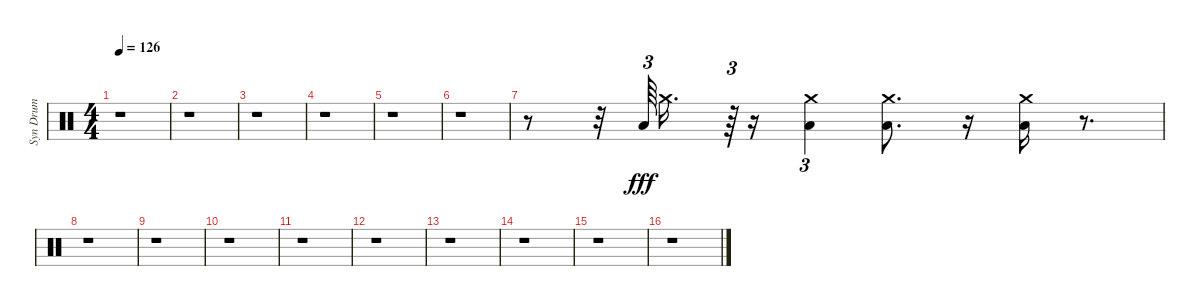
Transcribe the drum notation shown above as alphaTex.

\track ("Syn Drum" "Syn Drum") {instrument percussion}
\staff {score}
\articulation defaults
\ts (4 4)
\tempo 126
\clef neutral
\ks c
r.1{dy fff} |
r.1 |
r.1 |
r.1 |
r.1 |
r.1 |
r.8 r.32 "Low Tom (hit)".64{tu (3 2)} "Crash medium (hit)".16{d} r.64{tu (3 2)} r.16 ("Crash medium (hit)" "Low Tom (hit)").4{tu (3 2)} ("Crash medium (hit)" "Low Tom (hit)").8{d} r.16 ("Low Tom (hit)" "Crash medium (hit)").16 r.8{d} |
r.1 |
r.1 |
r.1 |
r.1 |
r.1 |
r.1 |
r.1 |
r.1 |
r.1
